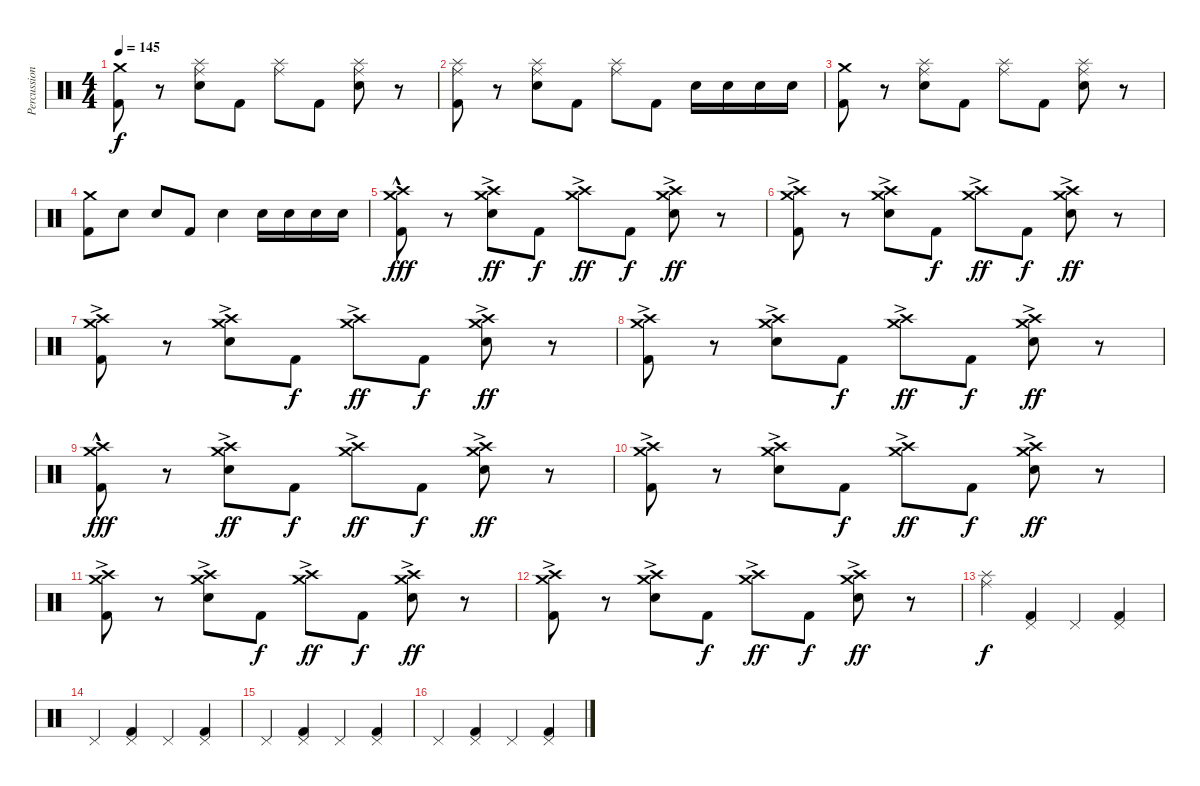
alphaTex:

\track ("Percussion" "Percussion") {instrument percussion}
\staff {score}
\articulation defaults
\ts (4 4)
\tempo 145
\clef neutral
\ks c
("Crash medium (hit)" "Kick (hit) 2").8{dy f} r.8 ("Ride (middle)" "Splash (hit)" "Electric Snare (hit)").8 "Kick (hit) 2".8 ("Ride (middle)" "Splash (hit)").8 "Kick (hit) 2".8 ("Ride (middle)" "Splash (hit)" "Electric Snare (hit)").8 r.8 |
("Ride (middle)" "Splash (hit)" "Kick (hit) 2").8 r.8 ("Ride (middle)" "Splash (hit)" "Electric Snare (hit)").8 "Kick (hit) 2".8 ("Ride (middle)" "Splash (hit)").8 "Kick (hit) 2".8 "Electric Snare (hit)".16 "Electric Snare (hit)".16 "Electric Snare (hit)".16 "Electric Snare (hit)".16 |
("Crash medium (hit)" "Kick (hit) 2").8 r.8 ("Ride (middle)" "Splash (hit)" "Electric Snare (hit)").8 "Kick (hit) 2".8 ("Ride (middle)" "Splash (hit)").8 "Kick (hit) 2".8 ("Ride (middle)" "Splash (hit)" "Electric Snare (hit)").8 r.8 |
("Crash medium (hit)" "Kick (hit) 2").8 "Electric Snare (hit)".8 "Electric Snare (hit)".8 "Kick (hit) 2".8 "Electric Snare (hit)".4 "Electric Snare (hit)".16 "Electric Snare (hit)".16 "Electric Snare (hit)".16 "Electric Snare (hit)".16 |
("Crash high (hit)"{hac} "Crash medium (hit)"{hac} "Kick (hit) 2"{hac}).8{dy fff} r.8 ("Crash high (hit)"{ac} "Crash medium (hit)"{ac} "Electric Snare (hit)").8{dy ff} "Kick (hit) 2".8{dy f} ("Crash high (hit)"{ac} "Crash medium (hit)"{ac}).8{dy ff} "Kick (hit) 2".8{dy f} ("Crash high (hit)"{ac} "Crash medium (hit)"{ac} "Electric Snare (hit)").8{dy ff} r.8 |
("Crash high (hit)"{ac} "Crash medium (hit)"{ac} "Kick (hit) 2").8 r.8 ("Crash high (hit)"{ac} "Crash medium (hit)"{ac} "Electric Snare (hit)").8 "Kick (hit) 2".8{dy f} ("Crash high (hit)"{ac} "Crash medium (hit)"{ac}).8{dy ff} "Kick (hit) 2".8{dy f} ("Crash high (hit)"{ac} "Crash medium (hit)"{ac} "Electric Snare (hit)").8{dy ff} r.8 |
("Crash high (hit)"{ac} "Crash medium (hit)"{ac} "Kick (hit) 2").8 r.8 ("Crash high (hit)"{ac} "Crash medium (hit)"{ac} "Electric Snare (hit)").8 "Kick (hit) 2".8{dy f} ("Crash high (hit)"{ac} "Crash medium (hit)"{ac}).8{dy ff} "Kick (hit) 2".8{dy f} ("Crash high (hit)"{ac} "Crash medium (hit)"{ac} "Electric Snare (hit)").8{dy ff} r.8 |
("Crash high (hit)"{ac} "Crash medium (hit)"{ac} "Kick (hit) 2").8 r.8 ("Crash high (hit)"{ac} "Crash medium (hit)"{ac} "Electric Snare (hit)").8 "Kick (hit) 2".8{dy f} ("Crash high (hit)"{ac} "Crash medium (hit)"{ac}).8{dy ff} "Kick (hit) 2".8{dy f} ("Crash high (hit)"{ac} "Crash medium (hit)"{ac} "Electric Snare (hit)").8{dy ff} r.8 |
("Crash high (hit)"{hac} "Crash medium (hit)"{hac} "Kick (hit) 2"{hac}).8{dy fff} r.8 ("Crash high (hit)"{ac} "Crash medium (hit)"{ac} "Electric Snare (hit)").8{dy ff} "Kick (hit) 2".8{dy f} ("Crash high (hit)"{ac} "Crash medium (hit)"{ac}).8{dy ff} "Kick (hit) 2".8{dy f} ("Crash high (hit)"{ac} "Crash medium (hit)"{ac} "Electric Snare (hit)").8{dy ff} r.8 |
("Crash high (hit)"{ac} "Crash medium (hit)"{ac} "Kick (hit) 2").8 r.8 ("Crash high (hit)"{ac} "Crash medium (hit)"{ac} "Electric Snare (hit)").8 "Kick (hit) 2".8{dy f} ("Crash high (hit)"{ac} "Crash medium (hit)"{ac}).8{dy ff} "Kick (hit) 2".8{dy f} ("Crash high (hit)"{ac} "Crash medium (hit)"{ac} "Electric Snare (hit)").8{dy ff} r.8 |
("Crash high (hit)"{ac} "Crash medium (hit)"{ac} "Kick (hit) 2").8 r.8 ("Crash high (hit)"{ac} "Crash medium (hit)"{ac} "Electric Snare (hit)").8 "Kick (hit) 2".8{dy f} ("Crash high (hit)"{ac} "Crash medium (hit)"{ac}).8{dy ff} "Kick (hit) 2".8{dy f} ("Crash high (hit)"{ac} "Crash medium (hit)"{ac} "Electric Snare (hit)").8{dy ff} r.8 |
("Crash high (hit)"{ac} "Crash medium (hit)"{ac} "Kick (hit) 2").8 r.8 ("Crash high (hit)"{ac} "Crash medium (hit)"{ac} "Electric Snare (hit)").8 "Kick (hit) 2".8{dy f} ("Crash high (hit)"{ac} "Crash medium (hit)"{ac}).8{dy ff} "Kick (hit) 2".8{dy f} ("Crash high (hit)"{ac} "Crash medium (hit)"{ac} "Electric Snare (hit)").8{dy ff} r.8 |
("Ride (middle)" "Splash (hit)").4{dy f} ("Pedal Hi-Hat (hit)" "Kick (hit) 2").4 "Pedal Hi-Hat (hit)".4 ("Pedal Hi-Hat (hit)" "Kick (hit) 2").4 |
"Pedal Hi-Hat (hit)".4 ("Pedal Hi-Hat (hit)" "Kick (hit) 2").4 "Pedal Hi-Hat (hit)".4 ("Pedal Hi-Hat (hit)" "Kick (hit) 2").4 |
"Pedal Hi-Hat (hit)".4 ("Pedal Hi-Hat (hit)" "Kick (hit) 2").4 "Pedal Hi-Hat (hit)".4 ("Pedal Hi-Hat (hit)" "Kick (hit) 2").4 |
"Pedal Hi-Hat (hit)".4 ("Pedal Hi-Hat (hit)" "Kick (hit) 2").4 "Pedal Hi-Hat (hit)".4 ("Pedal Hi-Hat (hit)" "Kick (hit) 2").4
